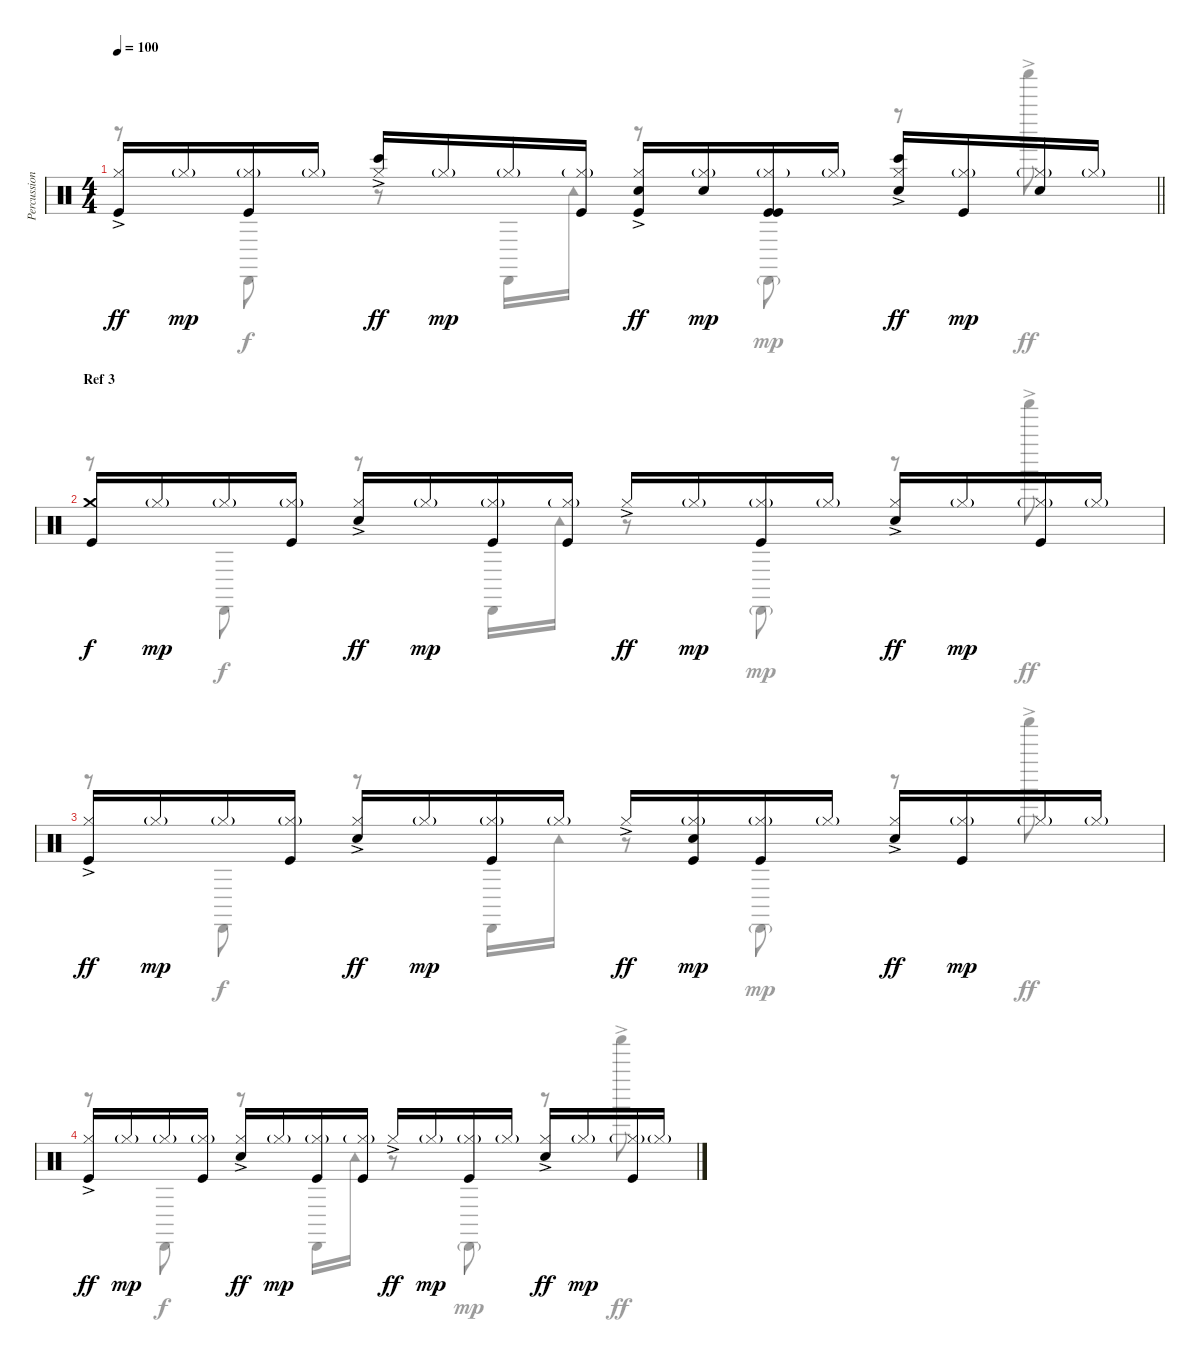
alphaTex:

\track ("Percussions" "Percussion") {instrument percussion}
\staff {score}
\articulation defaults
\voice
\ts (4 4)
\tempo 100
\clef neutral
\barLineRight lightlight
\ks c
("Kick (hit)" "Hi-Hat (closed)"{ac}).16{dy ff} "Hi-Hat (closed)"{g}.16{dy mp} ("Kick (hit)" "Hi-Hat (closed)"{g}).16 "Hi-Hat (closed)"{g}.16 ("Bongo High (hit)" "Hi-Hat (closed)"{ac}).16{dy ff} "Hi-Hat (closed)"{g}.16{dy mp} "Hi-Hat (closed)"{g}.16 ("Kick (hit)" "Hi-Hat (closed)"{g}).16 ("Kick (hit)" "Electric Snare (hit)" "Hi-Hat (closed)"{ac}).16{dy ff} ("Electric Snare (hit)" "Hi-Hat (closed)"{g}).16{dy mp} ("Kick (hit)" "Kick (hit)" "Hi-Hat (closed)"{g}).16 "Hi-Hat (closed)"{g}.16 ("Bongo High (hit)" "Electric Snare (hit)" "Hi-Hat (closed)"{ac}).16{dy ff} ("Kick (hit)" "Hi-Hat (closed)"{g}).16{dy mp} ("Electric Snare (hit)" "Hi-Hat (closed)"{g}).16 "Hi-Hat (closed)"{g}.16 |
\section ("" "Ref 3")
("Kick (hit)" "Crash medium (hit)").16{dy f} "Hi-Hat (closed)"{g}.16{dy mp} "Hi-Hat (closed)"{g}.16 ("Kick (hit)" "Hi-Hat (closed)"{g}).16 ("Electric Snare (hit)" "Hi-Hat (closed)"{ac}).16{dy ff} "Hi-Hat (closed)"{g}.16{dy mp} ("Kick (hit)" "Hi-Hat (closed)"{g}).16 ("Kick (hit)" "Hi-Hat (closed)"{g}).16 "Hi-Hat (closed)"{ac}.16{dy ff} "Hi-Hat (closed)"{g}.16{dy mp} ("Kick (hit)" "Hi-Hat (closed)"{g}).16 "Hi-Hat (closed)"{g}.16 ("Snare (hit) 2" "Hi-Hat (closed)"{ac}).16{dy ff} "Hi-Hat (closed)"{g}.16{dy mp} ("Kick (hit)" "Hi-Hat (closed)"{g}).16 "Hi-Hat (closed)"{g}.16 |
("Kick (hit)" "Hi-Hat (closed)"{ac}).16{dy ff} "Hi-Hat (closed)"{g}.16{dy mp} "Hi-Hat (closed)"{g}.16 ("Kick (hit)" "Hi-Hat (closed)"{g}).16 ("Electric Snare (hit)" "Hi-Hat (closed)"{ac}).16{dy ff} "Hi-Hat (closed)"{g}.16{dy mp} ("Kick (hit)" "Hi-Hat (closed)"{g}).16 "Hi-Hat (closed)"{g}.16 "Hi-Hat (closed)"{ac}.16{dy ff} ("Kick (hit)" "Electric Snare (hit)" "Hi-Hat (closed)"{g}).16{dy mp} ("Kick (hit)" "Hi-Hat (closed)"{g}).16 "Hi-Hat (closed)"{g}.16 ("Snare (hit) 2" "Hi-Hat (closed)"{ac}).16{dy ff} ("Kick (hit)" "Hi-Hat (closed)"{g}).16{dy mp} "Hi-Hat (closed)"{g}.16 "Hi-Hat (closed)"{g}.16 |
("Kick (hit)" "Hi-Hat (closed)"{ac}).16{dy ff} "Hi-Hat (closed)"{g}.16{dy mp} "Hi-Hat (closed)"{g}.16 ("Kick (hit)" "Hi-Hat (closed)"{g}).16 ("Electric Snare (hit)" "Hi-Hat (closed)"{ac}).16{dy ff} "Hi-Hat (closed)"{g}.16{dy mp} ("Kick (hit)" "Hi-Hat (closed)"{g}).16 ("Kick (hit)" "Hi-Hat (closed)"{g}).16 "Hi-Hat (closed)"{ac}.16{dy ff} "Hi-Hat (closed)"{g}.16{dy mp} ("Kick (hit)" "Hi-Hat (closed)"{g}).16 "Hi-Hat (closed)"{g}.16 ("Snare (hit) 2" "Hi-Hat (closed)"{ac}).16{dy ff} "Hi-Hat (closed)"{g}.16{dy mp} ("Kick (hit)" "Hi-Hat (closed)"{g}).16 "Hi-Hat (closed)"{g}.16
\voice
\clef neutral
\ottava regular
\simile none
\barLineRight lightlight
\ks c
r.8{dy ff} "Cabasa (hit)".8{dy f} r.8 "Cabasa (hit)".16 "Tambourine (hit)".16 r.8 "Cabasa (hit)"{g}.8{dy mp} r.8 "Shaker (hit)"{ac}.8{dy ff} |
r.8 "Cabasa (hit)".8{dy f} r.8 "Cabasa (hit)".16 "Tambourine (hit)".16 r.8 "Cabasa (hit)"{g}.8{dy mp} r.8 "Shaker (hit)"{ac}.8{dy ff} |
r.8 "Cabasa (hit)".8{dy f} r.8 "Cabasa (hit)".16 "Tambourine (hit)".16 r.8 "Cabasa (hit)"{g}.8{dy mp} r.8 "Shaker (hit)"{ac}.8{dy ff} |
r.8 "Cabasa (hit)".8{dy f} r.8 "Cabasa (hit)".16 "Tambourine (hit)".16 r.8 "Cabasa (hit)"{g}.8{dy mp} r.8 "Shaker (hit)"{ac}.8{dy ff}
